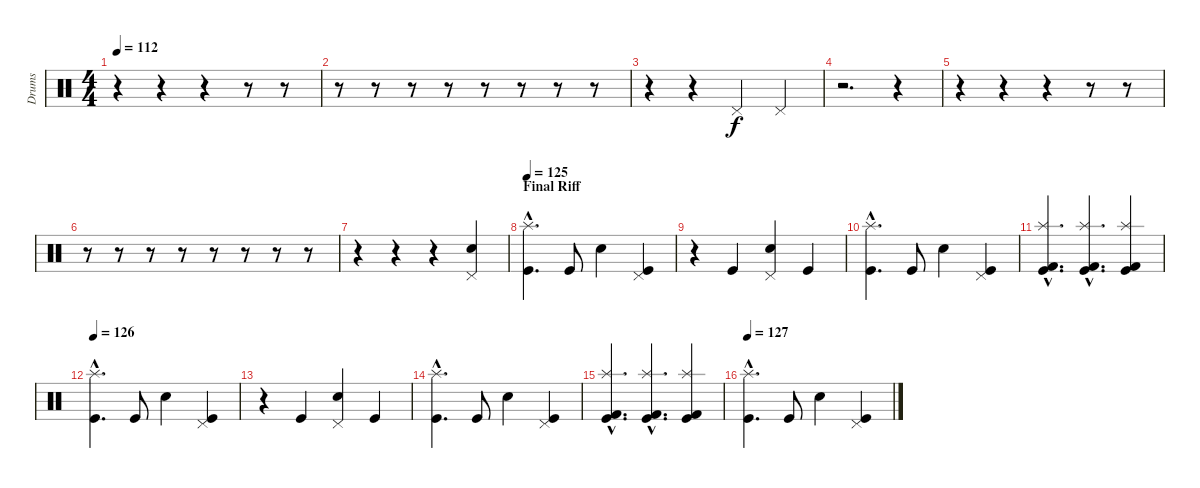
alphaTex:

\track ("Drums" "Drums") {instrument percussion}
\staff {score}
\articulation defaults
\ts (4 4)
\tempo 112
\clef neutral
\ks c
r.4{dy f} r.4 r.4 r.8 r.8 |
r.8 r.8 r.8 r.8 r.8 r.8 r.8 r.8 |
r.4 r.4 "Pedal Hi-Hat (hit)".4 "Pedal Hi-Hat (hit)".4 |
r.2{d} r.4 |
r.4 r.4 r.4 r.8 r.8 |
r.8 r.8 r.8 r.8 r.8 r.8 r.8 r.8 |
r.4 r.4 r.4 ("Electric Snare (hit)" "Pedal Hi-Hat (hit)").4 |
\section ("" "Final Riff")
\tempo 125
("Kick (hit)"{hac} "Splash (hit)"{hac}).4{d volume 13} "Kick (hit)".8 "Electric Snare (hit)".4 ("Kick (hit)" "Pedal Hi-Hat (hit)").4 |
r.4 "Kick (hit)".4 ("Electric Snare (hit)" "Pedal Hi-Hat (hit)").4 "Kick (hit)".4 |
("Kick (hit)"{hac} "Splash (hit)"{hac}).4{d} "Kick (hit)".8 "Electric Snare (hit)".4 ("Kick (hit)" "Pedal Hi-Hat (hit)").4 |
("Kick (hit) 2"{hac} "Kick (hit)"{hac} "Splash (hit)"{hac}).4{d} ("Kick (hit) 2"{hac} "Kick (hit)"{hac} "Splash (hit)"{hac}).4{d} ("Kick (hit) 2" "Kick (hit)" "Splash (hit)").4 |
\tempo 126
("Kick (hit)"{hac} "Splash (hit)"{hac}).4{d} "Kick (hit)".8 "Electric Snare (hit)".4 ("Kick (hit)" "Pedal Hi-Hat (hit)").4 |
r.4 "Kick (hit)".4 ("Electric Snare (hit)" "Pedal Hi-Hat (hit)").4 "Kick (hit)".4 |
("Kick (hit)"{hac} "Splash (hit)"{hac}).4{d} "Kick (hit)".8 "Electric Snare (hit)".4 ("Kick (hit)" "Pedal Hi-Hat (hit)").4 |
("Kick (hit) 2"{hac} "Kick (hit)"{hac} "Splash (hit)"{hac}).4{d} ("Kick (hit) 2"{hac} "Kick (hit)"{hac} "Splash (hit)"{hac}).4{d} ("Kick (hit) 2" "Kick (hit)" "Splash (hit)").4 |
\tempo 127
("Kick (hit)"{hac} "Splash (hit)"{hac}).4{d} "Kick (hit)".8 "Electric Snare (hit)".4 ("Kick (hit)" "Pedal Hi-Hat (hit)").4
